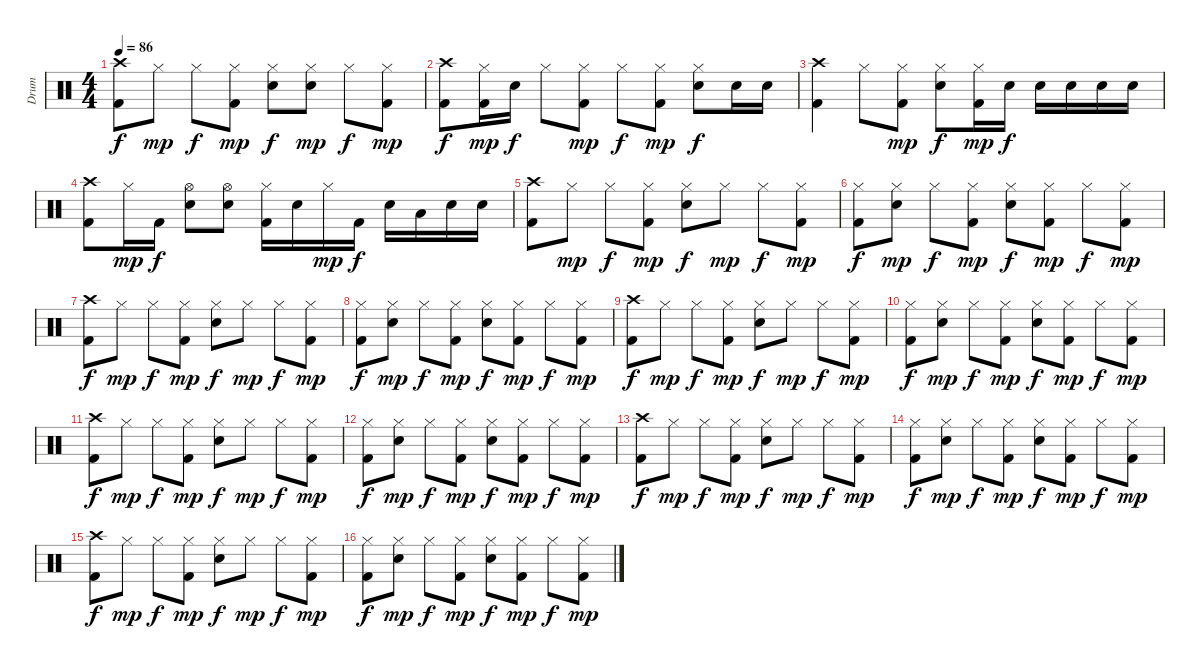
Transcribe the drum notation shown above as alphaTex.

\track ("Drum" "Drum") {instrument percussion}
\staff {score}
\articulation defaults
\ts (4 4)
\tempo 86
\clef neutral
\ks c
("Crash high (hit)" "Kick (hit) 2").8{dy f} "Hi-Hat (closed)".8{dy mp} "Hi-Hat (closed)".8{dy f} ("Hi-Hat (closed)" "Kick (hit) 2").8{dy mp} ("Hi-Hat (closed)" "Electric Snare (hit)").8{dy f} ("Hi-Hat (closed)" "Electric Snare (hit)").8{dy mp} "Hi-Hat (closed)".8{dy f} ("Hi-Hat (closed)" "Kick (hit) 2").8{dy mp} |
("Crash high (hit)" "Kick (hit) 2").8{dy f} ("Hi-Hat (closed)" "Kick (hit) 2").16{dy mp} "Electric Snare (hit)".16{dy f} "Hi-Hat (closed)".8 ("Hi-Hat (closed)" "Kick (hit) 2").8{dy mp} "Hi-Hat (closed)".8{dy f} ("Hi-Hat (closed)" "Kick (hit) 2").8{dy mp} ("Hi-Hat (closed)" "Electric Snare (hit)").8{dy f} "Electric Snare (hit)".16 "Electric Snare (hit)".16 |
("Crash high (hit)" "Kick (hit) 2").4 "Hi-Hat (closed)".8 ("Hi-Hat (closed)" "Kick (hit) 2").8{dy mp} ("Hi-Hat (closed)" "Electric Snare (hit)").8{dy f} ("Hi-Hat (closed)" "Kick (hit) 2").16{dy mp} "Electric Snare (hit)".16{dy f} "Electric Snare (hit)".16 "Electric Snare (hit)".16 "Electric Snare (hit)".16 "Electric Snare (hit)".16 |
("Crash high (hit)" "Kick (hit) 2").8 "Hi-Hat (closed)".16{dy mp} "Kick (hit) 2".16{dy f} ("Hi-Hat (open)" "Electric Snare (hit)").8 ("Hi-Hat (open)" "Electric Snare (hit)").8 ("Hi-Hat (closed)" "Kick (hit) 2").16 "Electric Snare (hit)".16 "Hi-Hat (closed)".16{dy mp} "Kick (hit) 2".16{dy f} "Electric Snare (hit)".16 "Low Tom (hit)".16 "Electric Snare (hit)".16 "Electric Snare (hit)".16 |
("Crash high (hit)" "Kick (hit) 2").8 "Hi-Hat (closed)".8{dy mp} "Hi-Hat (closed)".8{dy f} ("Hi-Hat (closed)" "Kick (hit) 2").8{dy mp} ("Hi-Hat (closed)" "Electric Snare (hit)").8{dy f} "Hi-Hat (closed)".8{dy mp} "Hi-Hat (closed)".8{dy f} ("Hi-Hat (closed)" "Kick (hit) 2").8{dy mp} |
("Hi-Hat (closed)" "Kick (hit) 2").8{dy f} ("Hi-Hat (closed)" "Electric Snare (hit)").8{dy mp} "Hi-Hat (closed)".8{dy f} ("Hi-Hat (closed)" "Kick (hit) 2").8{dy mp} ("Hi-Hat (closed)" "Electric Snare (hit)").8{dy f} ("Hi-Hat (closed)" "Kick (hit) 2").8{dy mp} "Hi-Hat (closed)".8{dy f} ("Hi-Hat (closed)" "Kick (hit) 2").8{dy mp} |
("Crash high (hit)" "Kick (hit) 2").8{dy f} "Hi-Hat (closed)".8{dy mp} "Hi-Hat (closed)".8{dy f} ("Hi-Hat (closed)" "Kick (hit) 2").8{dy mp} ("Hi-Hat (closed)" "Electric Snare (hit)").8{dy f} "Hi-Hat (closed)".8{dy mp} "Hi-Hat (closed)".8{dy f} ("Hi-Hat (closed)" "Kick (hit) 2").8{dy mp} |
("Hi-Hat (closed)" "Kick (hit) 2").8{dy f} ("Hi-Hat (closed)" "Electric Snare (hit)").8{dy mp} "Hi-Hat (closed)".8{dy f} ("Hi-Hat (closed)" "Kick (hit) 2").8{dy mp} ("Hi-Hat (closed)" "Electric Snare (hit)").8{dy f} ("Hi-Hat (closed)" "Kick (hit) 2").8{dy mp} "Hi-Hat (closed)".8{dy f} ("Hi-Hat (closed)" "Kick (hit) 2").8{dy mp} |
("Crash high (hit)" "Kick (hit) 2").8{dy f} "Hi-Hat (closed)".8{dy mp} "Hi-Hat (closed)".8{dy f} ("Hi-Hat (closed)" "Kick (hit) 2").8{dy mp} ("Hi-Hat (closed)" "Electric Snare (hit)").8{dy f} "Hi-Hat (closed)".8{dy mp} "Hi-Hat (closed)".8{dy f} ("Hi-Hat (closed)" "Kick (hit) 2").8{dy mp} |
("Hi-Hat (closed)" "Kick (hit) 2").8{dy f} ("Hi-Hat (closed)" "Electric Snare (hit)").8{dy mp} "Hi-Hat (closed)".8{dy f} ("Hi-Hat (closed)" "Kick (hit) 2").8{dy mp} ("Hi-Hat (closed)" "Electric Snare (hit)").8{dy f} ("Hi-Hat (closed)" "Kick (hit) 2").8{dy mp} "Hi-Hat (closed)".8{dy f} ("Hi-Hat (closed)" "Kick (hit) 2").8{dy mp} |
("Crash high (hit)" "Kick (hit) 2").8{dy f} "Hi-Hat (closed)".8{dy mp} "Hi-Hat (closed)".8{dy f} ("Hi-Hat (closed)" "Kick (hit) 2").8{dy mp} ("Hi-Hat (closed)" "Electric Snare (hit)").8{dy f} "Hi-Hat (closed)".8{dy mp} "Hi-Hat (closed)".8{dy f} ("Hi-Hat (closed)" "Kick (hit) 2").8{dy mp} |
("Hi-Hat (closed)" "Kick (hit) 2").8{dy f} ("Hi-Hat (closed)" "Electric Snare (hit)").8{dy mp} "Hi-Hat (closed)".8{dy f} ("Hi-Hat (closed)" "Kick (hit) 2").8{dy mp} ("Hi-Hat (closed)" "Electric Snare (hit)").8{dy f} ("Hi-Hat (closed)" "Kick (hit) 2").8{dy mp} "Hi-Hat (closed)".8{dy f} ("Hi-Hat (closed)" "Kick (hit) 2").8{dy mp} |
("Crash high (hit)" "Kick (hit) 2").8{dy f} "Hi-Hat (closed)".8{dy mp} "Hi-Hat (closed)".8{dy f} ("Hi-Hat (closed)" "Kick (hit) 2").8{dy mp} ("Hi-Hat (closed)" "Electric Snare (hit)").8{dy f} "Hi-Hat (closed)".8{dy mp} "Hi-Hat (closed)".8{dy f} ("Hi-Hat (closed)" "Kick (hit) 2").8{dy mp} |
("Hi-Hat (closed)" "Kick (hit) 2").8{dy f} ("Hi-Hat (closed)" "Electric Snare (hit)").8{dy mp} "Hi-Hat (closed)".8{dy f} ("Hi-Hat (closed)" "Kick (hit) 2").8{dy mp} ("Hi-Hat (closed)" "Electric Snare (hit)").8{dy f} ("Hi-Hat (closed)" "Kick (hit) 2").8{dy mp} "Hi-Hat (closed)".8{dy f} ("Hi-Hat (closed)" "Kick (hit) 2").8{dy mp} |
("Crash high (hit)" "Kick (hit) 2").8{dy f} "Hi-Hat (closed)".8{dy mp} "Hi-Hat (closed)".8{dy f} ("Hi-Hat (closed)" "Kick (hit) 2").8{dy mp} ("Hi-Hat (closed)" "Electric Snare (hit)").8{dy f} "Hi-Hat (closed)".8{dy mp} "Hi-Hat (closed)".8{dy f} ("Hi-Hat (closed)" "Kick (hit) 2").8{dy mp} |
("Hi-Hat (closed)" "Kick (hit) 2").8{dy f} ("Hi-Hat (closed)" "Electric Snare (hit)").8{dy mp} "Hi-Hat (closed)".8{dy f} ("Hi-Hat (closed)" "Kick (hit) 2").8{dy mp} ("Hi-Hat (closed)" "Electric Snare (hit)").8{dy f} ("Hi-Hat (closed)" "Kick (hit) 2").8{dy mp} "Hi-Hat (closed)".8{dy f} ("Hi-Hat (closed)" "Kick (hit) 2").8{dy mp}
